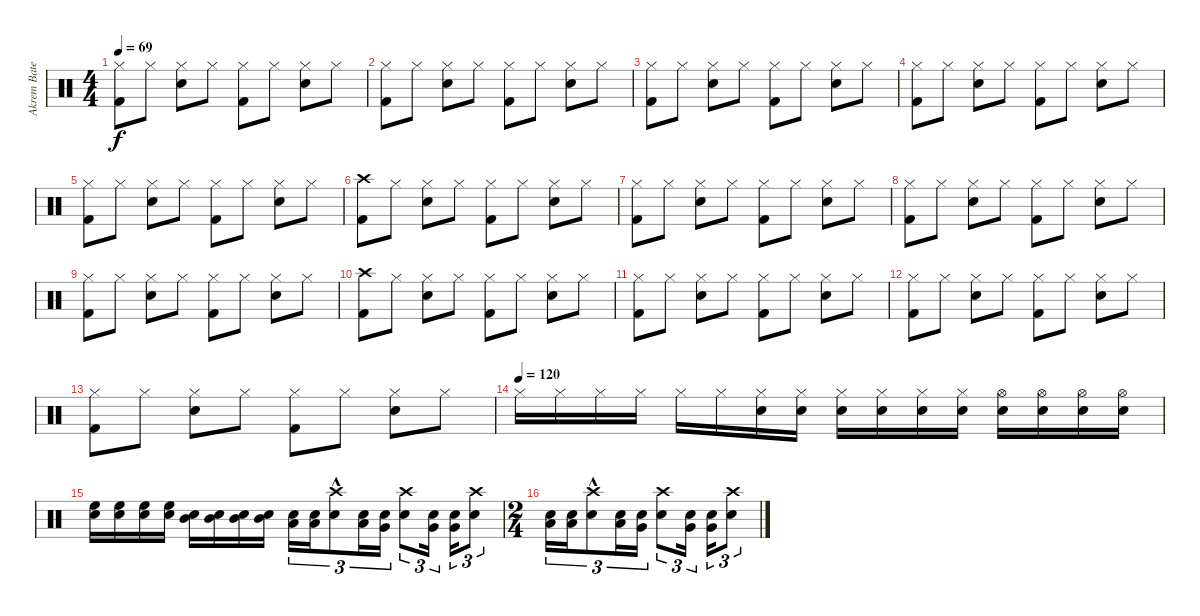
\track ("Akrem Baterie" "Akrem Bate") {instrument percussion}
\staff {score}
\articulation defaults
\ts (4 4)
\tempo 69
\clef neutral
\ks c
("Hi-Hat (closed)" "Kick (hit) 2").8{dy f} "Hi-Hat (closed)".8 ("Hi-Hat (closed)" "Electric Snare (hit)").8 "Hi-Hat (closed)".8 ("Hi-Hat (closed)" "Kick (hit) 2").8 "Hi-Hat (closed)".8 ("Hi-Hat (closed)" "Electric Snare (hit)").8 "Hi-Hat (closed)".8 |
("Hi-Hat (closed)" "Kick (hit) 2").8 "Hi-Hat (closed)".8 ("Hi-Hat (closed)" "Electric Snare (hit)").8 "Hi-Hat (closed)".8 ("Hi-Hat (closed)" "Kick (hit) 2").8 "Hi-Hat (closed)".8 ("Hi-Hat (closed)" "Electric Snare (hit)").8 "Hi-Hat (closed)".8 |
("Hi-Hat (closed)" "Kick (hit) 2").8 "Hi-Hat (closed)".8 ("Hi-Hat (closed)" "Electric Snare (hit)").8 "Hi-Hat (closed)".8 ("Hi-Hat (closed)" "Kick (hit) 2").8 "Hi-Hat (closed)".8 ("Hi-Hat (closed)" "Electric Snare (hit)").8 "Hi-Hat (closed)".8 |
("Hi-Hat (closed)" "Kick (hit) 2").8 "Hi-Hat (closed)".8 ("Hi-Hat (closed)" "Electric Snare (hit)").8 "Hi-Hat (closed)".8 ("Hi-Hat (closed)" "Kick (hit) 2").8 "Hi-Hat (closed)".8 ("Hi-Hat (closed)" "Electric Snare (hit)").8 "Hi-Hat (closed)".8 |
("Hi-Hat (closed)" "Kick (hit) 2").8 "Hi-Hat (closed)".8 ("Hi-Hat (closed)" "Electric Snare (hit)").8 "Hi-Hat (closed)".8 ("Hi-Hat (closed)" "Kick (hit) 2").8 "Hi-Hat (closed)".8 ("Hi-Hat (closed)" "Electric Snare (hit)").8 "Hi-Hat (closed)".8 |
("Crash high (hit)" "Kick (hit) 2").8 "Hi-Hat (closed)".8 ("Hi-Hat (closed)" "Electric Snare (hit)").8 "Hi-Hat (closed)".8 ("Hi-Hat (closed)" "Kick (hit) 2").8 "Hi-Hat (closed)".8 ("Hi-Hat (closed)" "Electric Snare (hit)").8 "Hi-Hat (closed)".8 |
("Hi-Hat (closed)" "Kick (hit) 2").8 "Hi-Hat (closed)".8 ("Hi-Hat (closed)" "Electric Snare (hit)").8 "Hi-Hat (closed)".8 ("Hi-Hat (closed)" "Kick (hit) 2").8 "Hi-Hat (closed)".8 ("Hi-Hat (closed)" "Electric Snare (hit)").8 "Hi-Hat (closed)".8 |
("Hi-Hat (closed)" "Kick (hit) 2").8 "Hi-Hat (closed)".8 ("Hi-Hat (closed)" "Electric Snare (hit)").8 "Hi-Hat (closed)".8 ("Hi-Hat (closed)" "Kick (hit) 2").8 "Hi-Hat (closed)".8 ("Hi-Hat (closed)" "Electric Snare (hit)").8 "Hi-Hat (closed)".8 |
("Hi-Hat (closed)" "Kick (hit) 2").8 "Hi-Hat (closed)".8 ("Hi-Hat (closed)" "Electric Snare (hit)").8 "Hi-Hat (closed)".8 ("Hi-Hat (closed)" "Kick (hit) 2").8 "Hi-Hat (closed)".8 ("Hi-Hat (closed)" "Electric Snare (hit)").8 "Hi-Hat (closed)".8 |
("Crash high (hit)" "Kick (hit) 2").8 "Hi-Hat (closed)".8 ("Hi-Hat (closed)" "Electric Snare (hit)").8 "Hi-Hat (closed)".8 ("Hi-Hat (closed)" "Kick (hit) 2").8 "Hi-Hat (closed)".8 ("Hi-Hat (closed)" "Electric Snare (hit)").8 "Hi-Hat (closed)".8 |
("Hi-Hat (closed)" "Kick (hit) 2").8 "Hi-Hat (closed)".8 ("Hi-Hat (closed)" "Electric Snare (hit)").8 "Hi-Hat (closed)".8 ("Hi-Hat (closed)" "Kick (hit) 2").8 "Hi-Hat (closed)".8 ("Hi-Hat (closed)" "Electric Snare (hit)").8 "Hi-Hat (closed)".8 |
("Hi-Hat (closed)" "Kick (hit) 2").8 "Hi-Hat (closed)".8 ("Hi-Hat (closed)" "Electric Snare (hit)").8 "Hi-Hat (closed)".8 ("Hi-Hat (closed)" "Kick (hit) 2").8 "Hi-Hat (closed)".8 ("Hi-Hat (closed)" "Electric Snare (hit)").8 "Hi-Hat (closed)".8 |
("Hi-Hat (closed)" "Kick (hit) 2").8 "Hi-Hat (closed)".8 ("Hi-Hat (closed)" "Electric Snare (hit)").8 "Hi-Hat (closed)".8 ("Hi-Hat (closed)" "Kick (hit) 2").8 "Hi-Hat (closed)".8 ("Hi-Hat (closed)" "Electric Snare (hit)").8 "Hi-Hat (closed)".8 |
\tempo (120)
"Hi-Hat (closed)".16 "Hi-Hat (closed)".16 "Hi-Hat (closed)".16 "Hi-Hat (closed)".16 "Hi-Hat (closed)".16 "Hi-Hat (closed)".16 ("Hi-Hat (closed)" "Snare (hit) 2").16 ("Hi-Hat (closed)" "Snare (hit) 2").16 ("Hi-Hat (closed)" "Snare (hit) 2").16 ("Hi-Hat (closed)" "Snare (hit) 2").16 ("Hi-Hat (closed)" "Snare (hit) 2").16 ("Hi-Hat (closed)" "Snare (hit) 2").16 ("Hi-Hat (open)" "Snare (hit) 2").16 ("Hi-Hat (open)" "Snare (hit) 2").16 ("Hi-Hat (open)" "Snare (hit) 2").16 ("Hi-Hat (open)" "Snare (hit) 2").16 |
("High Floor Tom (hit)" "Snare (hit) 2").16 ("High Floor Tom (hit)" "Snare (hit) 2").16 ("High Floor Tom (hit)" "Snare (hit) 2").16 ("High Floor Tom (hit)" "Snare (hit) 2").16 ("Mid Tom (hit)" "Snare (hit) 2").16 ("Mid Tom (hit)" "Snare (hit) 2").16 ("Mid Tom (hit)" "Snare (hit) 2").16 ("Mid Tom (hit)" "Snare (hit) 2").16 ("Low Tom (hit)" "Snare (hit) 2").16{tu (3 2)} ("Low Tom (hit)" "Snare (hit) 2").16{tu (3 2)} ("Crash high (hit)"{hac} "Electric Snare (hit)"{hac}).8{tu (3 2)} ("Low Tom (hit)" "Snare (hit) 2").16{tu (3 2)} ("Very Low Tom (hit)" "Snare (hit) 2").16{tu (3 2)} ("Crash high (hit)" "Electric Snare (hit)").8{tu (3 2)} ("Very Low Tom (hit)" "Snare (hit) 2").16{tu (3 2)} ("Very Low Tom (hit)" "Snare (hit) 2").16{tu (3 2)} ("Crash high (hit)" "Electric Snare (hit)").8{tu (3 2)} |
\ts (2 4)
("Low Tom (hit)" "Snare (hit) 2").16{tu (3 2)} ("Low Tom (hit)" "Snare (hit) 2").16{tu (3 2)} ("Crash high (hit)"{hac} "Electric Snare (hit)"{hac}).8{tu (3 2)} ("Low Tom (hit)" "Snare (hit) 2").16{tu (3 2)} ("Very Low Tom (hit)" "Snare (hit) 2").16{tu (3 2)} ("Crash high (hit)" "Electric Snare (hit)").8{tu (3 2)} ("Very Low Tom (hit)" "Snare (hit) 2").16{tu (3 2)} ("Very Low Tom (hit)" "Snare (hit) 2").16{tu (3 2)} ("Crash high (hit)" "Electric Snare (hit)").8{tu (3 2)}
